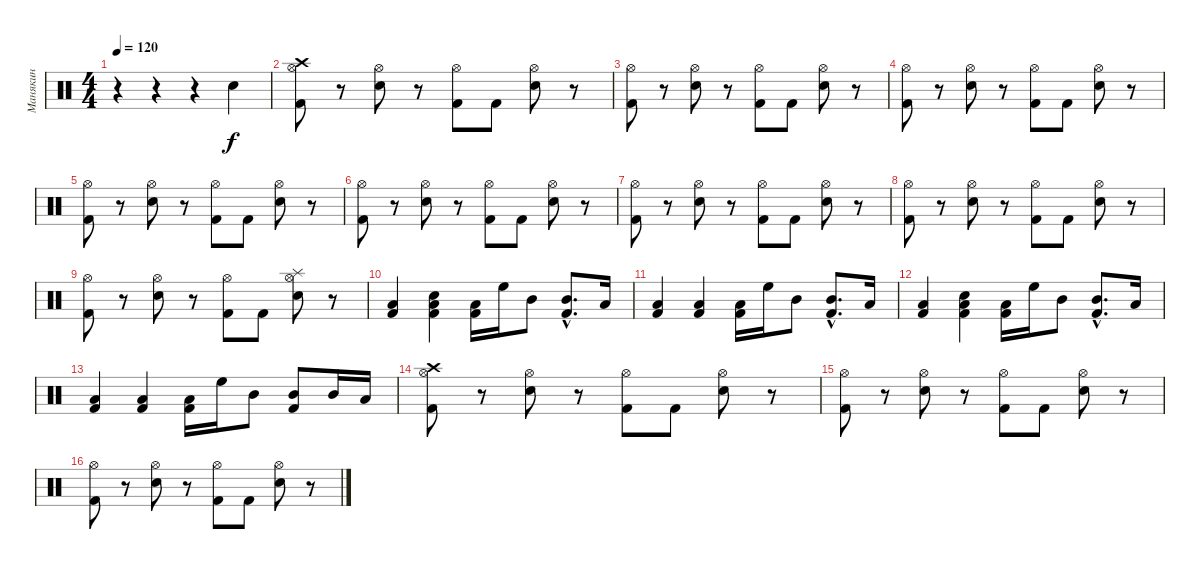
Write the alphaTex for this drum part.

\track ("Манякин" "Манякин") {instrument percussion}
\staff {score}
\articulation defaults
\ts (4 4)
\tempo 120
\clef neutral
\ks c
r.4{dy f} r.4 r.4 "Electric Snare (hit)".4 |
("Crash high (hit)" "Hi-Hat (open)" "Kick (hit) 2").8 r.8 ("Hi-Hat (open)" "Electric Snare (hit)").8 r.8 ("Hi-Hat (open)" "Kick (hit) 2").8 "Kick (hit) 2".8 ("Hi-Hat (open)" "Electric Snare (hit)").8 r.8 |
("Hi-Hat (open)" "Kick (hit) 2").8 r.8 ("Hi-Hat (open)" "Electric Snare (hit)").8 r.8 ("Hi-Hat (open)" "Kick (hit) 2").8 "Kick (hit) 2".8 ("Hi-Hat (open)" "Electric Snare (hit)").8 r.8 |
("Hi-Hat (open)" "Kick (hit) 2").8 r.8 ("Hi-Hat (open)" "Electric Snare (hit)").8 r.8 ("Hi-Hat (open)" "Kick (hit) 2").8 "Kick (hit) 2".8 ("Hi-Hat (open)" "Electric Snare (hit)").8 r.8 |
("Hi-Hat (open)" "Kick (hit) 2").8 r.8 ("Hi-Hat (open)" "Electric Snare (hit)").8 r.8 ("Hi-Hat (open)" "Kick (hit) 2").8 "Kick (hit) 2".8 ("Hi-Hat (open)" "Electric Snare (hit)").8 r.8 |
("Hi-Hat (open)" "Kick (hit) 2").8 r.8 ("Hi-Hat (open)" "Electric Snare (hit)").8 r.8 ("Hi-Hat (open)" "Kick (hit) 2").8 "Kick (hit) 2".8 ("Hi-Hat (open)" "Electric Snare (hit)").8 r.8 |
("Hi-Hat (open)" "Kick (hit) 2").8 r.8 ("Hi-Hat (open)" "Electric Snare (hit)").8 r.8 ("Hi-Hat (open)" "Kick (hit) 2").8 "Kick (hit) 2".8 ("Hi-Hat (open)" "Electric Snare (hit)").8 r.8 |
("Hi-Hat (open)" "Kick (hit) 2").8 r.8 ("Hi-Hat (open)" "Electric Snare (hit)").8 r.8 ("Hi-Hat (open)" "Kick (hit) 2").8 "Kick (hit) 2".8 ("Hi-Hat (open)" "Electric Snare (hit)").8 r.8 |
("Hi-Hat (open)" "Kick (hit) 2").8 r.8 ("Hi-Hat (open)" "Electric Snare (hit)").8 r.8 ("Hi-Hat (open)" "Kick (hit) 2").8 "Kick (hit) 2".8 ("Splash (hit)" "Hi-Hat (open)" "Electric Snare (hit)").8 r.8 |
("Low Tom (hit)" "Kick (hit) 2").4 ("Low Tom (hit)" "Electric Snare (hit)" "Kick (hit) 2").4 ("Low Tom (hit)" "Kick (hit) 2").16 "High Floor Tom (hit)".16 "Mid Tom (hit)".8 ("Mid Tom (hit)"{hac} "Kick (hit) 2"{hac}).8{d} "Low Tom (hit)".16 |
("Low Tom (hit)" "Kick (hit) 2").4 ("Low Tom (hit)" "Kick (hit) 2").4 ("Low Tom (hit)" "Kick (hit) 2").16 "High Floor Tom (hit)".16 "Mid Tom (hit)".8 ("Mid Tom (hit)"{hac} "Kick (hit) 2"{hac}).8{d} "Low Tom (hit)".16 |
("Low Tom (hit)" "Kick (hit) 2").4 ("Low Tom (hit)" "Electric Snare (hit)" "Kick (hit) 2").4 ("Low Tom (hit)" "Kick (hit) 2").16 "High Floor Tom (hit)".16 "Mid Tom (hit)".8 ("Mid Tom (hit)"{hac} "Kick (hit) 2"{hac}).8{d} "Low Tom (hit)".16 |
("Low Tom (hit)" "Kick (hit) 2").4 ("Low Tom (hit)" "Kick (hit) 2").4 ("Low Tom (hit)" "Kick (hit) 2").16 "High Floor Tom (hit)".16 "Mid Tom (hit)".8 ("Mid Tom (hit)" "Kick (hit) 2").8 "Mid Tom (hit)".16 "Low Tom (hit)".16 |
("Crash high (hit)" "Hi-Hat (open)" "Kick (hit) 2").8 r.8 ("Hi-Hat (open)" "Electric Snare (hit)").8 r.8 ("Hi-Hat (open)" "Kick (hit) 2").8 "Kick (hit) 2".8 ("Hi-Hat (open)" "Electric Snare (hit)").8 r.8 |
("Hi-Hat (open)" "Kick (hit) 2").8 r.8 ("Hi-Hat (open)" "Electric Snare (hit)").8 r.8 ("Hi-Hat (open)" "Kick (hit) 2").8 "Kick (hit) 2".8 ("Hi-Hat (open)" "Electric Snare (hit)").8 r.8 |
("Hi-Hat (open)" "Kick (hit) 2").8 r.8 ("Hi-Hat (open)" "Electric Snare (hit)").8 r.8 ("Hi-Hat (open)" "Kick (hit) 2").8 "Kick (hit) 2".8 ("Hi-Hat (open)" "Electric Snare (hit)").8 r.8
